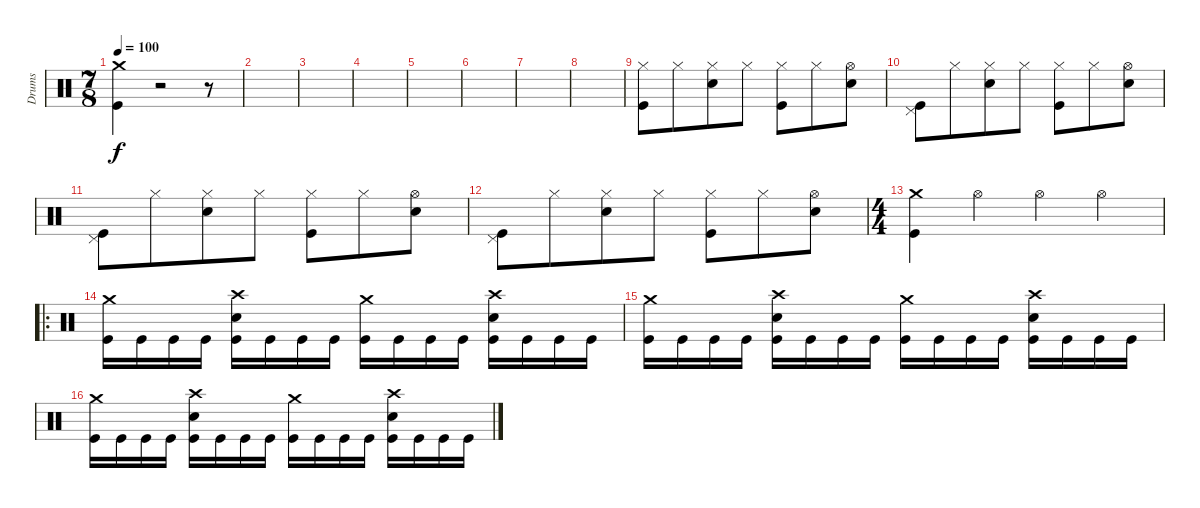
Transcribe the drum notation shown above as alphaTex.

\track ("Drums" "Drums") {instrument percussion}
\staff {score}
\articulation defaults
\ts (7 8)
\tempo 100
\clef neutral
\ks c
("Crash medium (hit)" "Kick (hit)").4{dy f} r.2 r.8 |
|
|
|
|
|
|
|
("Hi-Hat (closed)" "Kick (hit)").8 "Hi-Hat (closed)".8 ("Hi-Hat (closed)" "Snare (hit) 2").8 "Hi-Hat (closed)".8 ("Hi-Hat (closed)" "Kick (hit)").8 "Hi-Hat (closed)".8 ("Hi-Hat (open)" "Snare (hit) 2").8 |
("Pedal Hi-Hat (hit)" "Kick (hit)").8 "Hi-Hat (closed)".8 ("Hi-Hat (closed)" "Snare (hit) 2").8 "Hi-Hat (closed)".8 ("Hi-Hat (closed)" "Kick (hit)").8 "Hi-Hat (closed)".8 ("Hi-Hat (open)" "Snare (hit) 2").8 |
("Pedal Hi-Hat (hit)" "Kick (hit)").8 "Hi-Hat (closed)".8 ("Hi-Hat (closed)" "Snare (hit) 2").8 "Hi-Hat (closed)".8 ("Hi-Hat (closed)" "Kick (hit)").8 "Hi-Hat (closed)".8 ("Hi-Hat (open)" "Snare (hit) 2").8 |
("Pedal Hi-Hat (hit)" "Kick (hit)").8 "Hi-Hat (closed)".8 ("Hi-Hat (closed)" "Snare (hit) 2").8 "Hi-Hat (closed)".8 ("Hi-Hat (closed)" "Kick (hit)").8 "Hi-Hat (closed)".8 ("Hi-Hat (open)" "Snare (hit) 2").8 |
\ts (4 4)
("Crash medium (hit)" "Kick (hit)").4 "Hi-Hat (open)".4 "Hi-Hat (open)".4 "Hi-Hat (open)".4 |
\ro
("Crash medium (hit)" "Kick (hit)").16 "Kick (hit)".16 "Kick (hit)".16 "Kick (hit)".16 ("Crash high (hit)" "Snare (hit) 2" "Kick (hit)").16 "Kick (hit)".16 "Kick (hit)".16 "Kick (hit)".16 ("Crash medium (hit)" "Kick (hit)").16 "Kick (hit)".16 "Kick (hit)".16 "Kick (hit)".16 ("Crash high (hit)" "Snare (hit) 2" "Kick (hit)").16 "Kick (hit)".16 "Kick (hit)".16 "Kick (hit)".16 |
("Crash medium (hit)" "Kick (hit)").16 "Kick (hit)".16 "Kick (hit)".16 "Kick (hit)".16 ("Crash high (hit)" "Snare (hit) 2" "Kick (hit)").16 "Kick (hit)".16 "Kick (hit)".16 "Kick (hit)".16 ("Crash medium (hit)" "Kick (hit)").16 "Kick (hit)".16 "Kick (hit)".16 "Kick (hit)".16 ("Crash high (hit)" "Snare (hit) 2" "Kick (hit)").16 "Kick (hit)".16 "Kick (hit)".16 "Kick (hit)".16 |
("Crash medium (hit)" "Kick (hit)").16 "Kick (hit)".16 "Kick (hit)".16 "Kick (hit)".16 ("Crash high (hit)" "Snare (hit) 2" "Kick (hit)").16 "Kick (hit)".16 "Kick (hit)".16 "Kick (hit)".16 ("Crash medium (hit)" "Kick (hit)").16 "Kick (hit)".16 "Kick (hit)".16 "Kick (hit)".16 ("Crash high (hit)" "Snare (hit) 2" "Kick (hit)").16 "Kick (hit)".16 "Kick (hit)".16 "Kick (hit)".16
